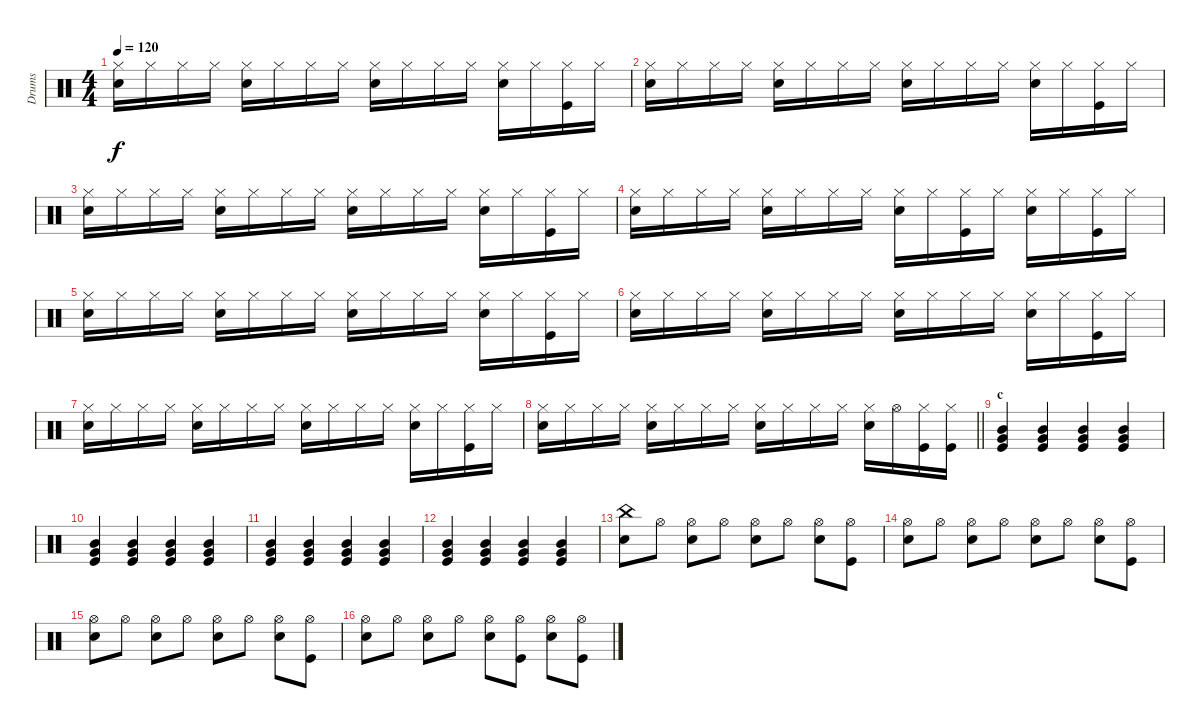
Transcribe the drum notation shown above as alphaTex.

\track ("Drums" "Drums") {instrument percussion}
\staff {score}
\articulation defaults
\ts (4 4)
\tempo 120
\clef neutral
\ks c
("Snare (hit) 2" "Hi-Hat (closed)").16{dy f} "Hi-Hat (closed)".16 "Hi-Hat (closed)".16 "Hi-Hat (closed)".16 ("Snare (hit) 2" "Hi-Hat (closed)").16 "Hi-Hat (closed)".16 "Hi-Hat (closed)".16 "Hi-Hat (closed)".16 ("Snare (hit) 2" "Hi-Hat (closed)").16 "Hi-Hat (closed)".16 "Hi-Hat (closed)".16 "Hi-Hat (closed)".16 ("Snare (hit) 2" "Hi-Hat (closed)").16 "Hi-Hat (closed)".16 ("Kick (hit)" "Hi-Hat (closed)").16 "Hi-Hat (closed)".16 |
("Snare (hit) 2" "Hi-Hat (closed)").16 "Hi-Hat (closed)".16 "Hi-Hat (closed)".16 "Hi-Hat (closed)".16 ("Snare (hit) 2" "Hi-Hat (closed)").16 "Hi-Hat (closed)".16 "Hi-Hat (closed)".16 "Hi-Hat (closed)".16 ("Snare (hit) 2" "Hi-Hat (closed)").16 "Hi-Hat (closed)".16 "Hi-Hat (closed)".16 "Hi-Hat (closed)".16 ("Snare (hit) 2" "Hi-Hat (closed)").16 "Hi-Hat (closed)".16 ("Kick (hit)" "Hi-Hat (closed)").16 "Hi-Hat (closed)".16 |
("Snare (hit) 2" "Hi-Hat (closed)").16 "Hi-Hat (closed)".16 "Hi-Hat (closed)".16 "Hi-Hat (closed)".16 ("Snare (hit) 2" "Hi-Hat (closed)").16 "Hi-Hat (closed)".16 "Hi-Hat (closed)".16 "Hi-Hat (closed)".16 ("Snare (hit) 2" "Hi-Hat (closed)").16 "Hi-Hat (closed)".16 "Hi-Hat (closed)".16 "Hi-Hat (closed)".16 ("Snare (hit) 2" "Hi-Hat (closed)").16 "Hi-Hat (closed)".16 ("Kick (hit)" "Hi-Hat (closed)").16 "Hi-Hat (closed)".16 |
("Snare (hit) 2" "Hi-Hat (closed)").16 "Hi-Hat (closed)".16 "Hi-Hat (closed)".16 "Hi-Hat (closed)".16 ("Snare (hit) 2" "Hi-Hat (closed)").16 "Hi-Hat (closed)".16 "Hi-Hat (closed)".16 "Hi-Hat (closed)".16 ("Snare (hit) 2" "Hi-Hat (closed)").16 "Hi-Hat (closed)".16 ("Kick (hit)" "Hi-Hat (closed)").16 "Hi-Hat (closed)".16 ("Snare (hit) 2" "Hi-Hat (closed)").16 "Hi-Hat (closed)".16 ("Kick (hit)" "Hi-Hat (closed)").16 "Hi-Hat (closed)".16 |
("Snare (hit) 2" "Hi-Hat (closed)").16 "Hi-Hat (closed)".16 "Hi-Hat (closed)".16 "Hi-Hat (closed)".16 ("Snare (hit) 2" "Hi-Hat (closed)").16 "Hi-Hat (closed)".16 "Hi-Hat (closed)".16 "Hi-Hat (closed)".16 ("Snare (hit) 2" "Hi-Hat (closed)").16 "Hi-Hat (closed)".16 "Hi-Hat (closed)".16 "Hi-Hat (closed)".16 ("Snare (hit) 2" "Hi-Hat (closed)").16 "Hi-Hat (closed)".16 ("Kick (hit)" "Hi-Hat (closed)").16 "Hi-Hat (closed)".16 |
("Snare (hit) 2" "Hi-Hat (closed)").16 "Hi-Hat (closed)".16 "Hi-Hat (closed)".16 "Hi-Hat (closed)".16 ("Snare (hit) 2" "Hi-Hat (closed)").16 "Hi-Hat (closed)".16 "Hi-Hat (closed)".16 "Hi-Hat (closed)".16 ("Snare (hit) 2" "Hi-Hat (closed)").16 "Hi-Hat (closed)".16 "Hi-Hat (closed)".16 "Hi-Hat (closed)".16 ("Snare (hit) 2" "Hi-Hat (closed)").16 "Hi-Hat (closed)".16 ("Kick (hit)" "Hi-Hat (closed)").16 "Hi-Hat (closed)".16 |
("Snare (hit) 2" "Hi-Hat (closed)").16 "Hi-Hat (closed)".16 "Hi-Hat (closed)".16 "Hi-Hat (closed)".16 ("Snare (hit) 2" "Hi-Hat (closed)").16 "Hi-Hat (closed)".16 "Hi-Hat (closed)".16 "Hi-Hat (closed)".16 ("Snare (hit) 2" "Hi-Hat (closed)").16 "Hi-Hat (closed)".16 "Hi-Hat (closed)".16 "Hi-Hat (closed)".16 ("Snare (hit) 2" "Hi-Hat (closed)").16 "Hi-Hat (closed)".16 ("Kick (hit)" "Hi-Hat (closed)").16 "Hi-Hat (closed)".16 |
\barLineRight lightlight
("Snare (hit) 2" "Hi-Hat (closed)").16 "Hi-Hat (closed)".16 "Hi-Hat (closed)".16 "Hi-Hat (closed)".16 ("Snare (hit) 2" "Hi-Hat (closed)").16 "Hi-Hat (closed)".16 "Hi-Hat (closed)".16 "Hi-Hat (closed)".16 ("Snare (hit) 2" "Hi-Hat (closed)").16 "Hi-Hat (closed)".16 "Hi-Hat (closed)".16 "Hi-Hat (closed)".16 ("Snare (hit) 2" "Hi-Hat (closed)").16 "Hi-Hat (open)".16 ("Kick (hit)" "Hi-Hat (closed)").16 ("Kick (hit)" "Hi-Hat (closed)").16 |
\section ("" "c")
("Very Low Tom (hit)" "Kick (hit)" "Mid Tom (hit)").4 ("Very Low Tom (hit)" "Kick (hit)" "Mid Tom (hit)").4 ("Very Low Tom (hit)" "Kick (hit)" "Mid Tom (hit)").4 ("Very Low Tom (hit)" "Kick (hit)" "Mid Tom (hit)").4 |
("Very Low Tom (hit)" "Kick (hit)" "Mid Tom (hit)").4 ("Very Low Tom (hit)" "Kick (hit)" "Mid Tom (hit)").4 ("Very Low Tom (hit)" "Kick (hit)" "Mid Tom (hit)").4 ("Very Low Tom (hit)" "Kick (hit)" "Mid Tom (hit)").4 |
("Very Low Tom (hit)" "Kick (hit)" "Mid Tom (hit)").4 ("Very Low Tom (hit)" "Kick (hit)" "Mid Tom (hit)").4 ("Very Low Tom (hit)" "Kick (hit)" "Mid Tom (hit)").4 ("Very Low Tom (hit)" "Kick (hit)" "Mid Tom (hit)").4 |
("Very Low Tom (hit)" "Kick (hit)" "Mid Tom (hit)").4 ("Very Low Tom (hit)" "Kick (hit)" "Mid Tom (hit)").4 ("Very Low Tom (hit)" "Kick (hit)" "Mid Tom (hit)").4 ("Very Low Tom (hit)" "Kick (hit)" "Mid Tom (hit)").4 |
("Snare (hit) 2" "China (hit)").8 "Hi-Hat (open)".8 ("Snare (hit) 2" "Hi-Hat (open)").8 "Hi-Hat (open)".8 ("Snare (hit) 2" "Hi-Hat (open)").8 "Hi-Hat (open)".8 ("Snare (hit) 2" "Hi-Hat (open)").8 ("Kick (hit)" "Hi-Hat (open)").8 |
("Snare (hit) 2" "Hi-Hat (open)").8 "Hi-Hat (open)".8 ("Snare (hit) 2" "Hi-Hat (open)").8 "Hi-Hat (open)".8 ("Snare (hit) 2" "Hi-Hat (open)").8 "Hi-Hat (open)".8 ("Snare (hit) 2" "Hi-Hat (open)").8 ("Kick (hit)" "Hi-Hat (open)").8 |
("Snare (hit) 2" "Hi-Hat (open)").8 "Hi-Hat (open)".8 ("Snare (hit) 2" "Hi-Hat (open)").8 "Hi-Hat (open)".8 ("Snare (hit) 2" "Hi-Hat (open)").8 "Hi-Hat (open)".8 ("Snare (hit) 2" "Hi-Hat (open)").8 ("Kick (hit)" "Hi-Hat (open)").8 |
("Snare (hit) 2" "Hi-Hat (open)").8 "Hi-Hat (open)".8 ("Snare (hit) 2" "Hi-Hat (open)").8 "Hi-Hat (open)".8 ("Snare (hit) 2" "Hi-Hat (open)").8 ("Kick (hit)" "Hi-Hat (open)").8 ("Snare (hit) 2" "Hi-Hat (open)").8 ("Kick (hit)" "Hi-Hat (open)").8
